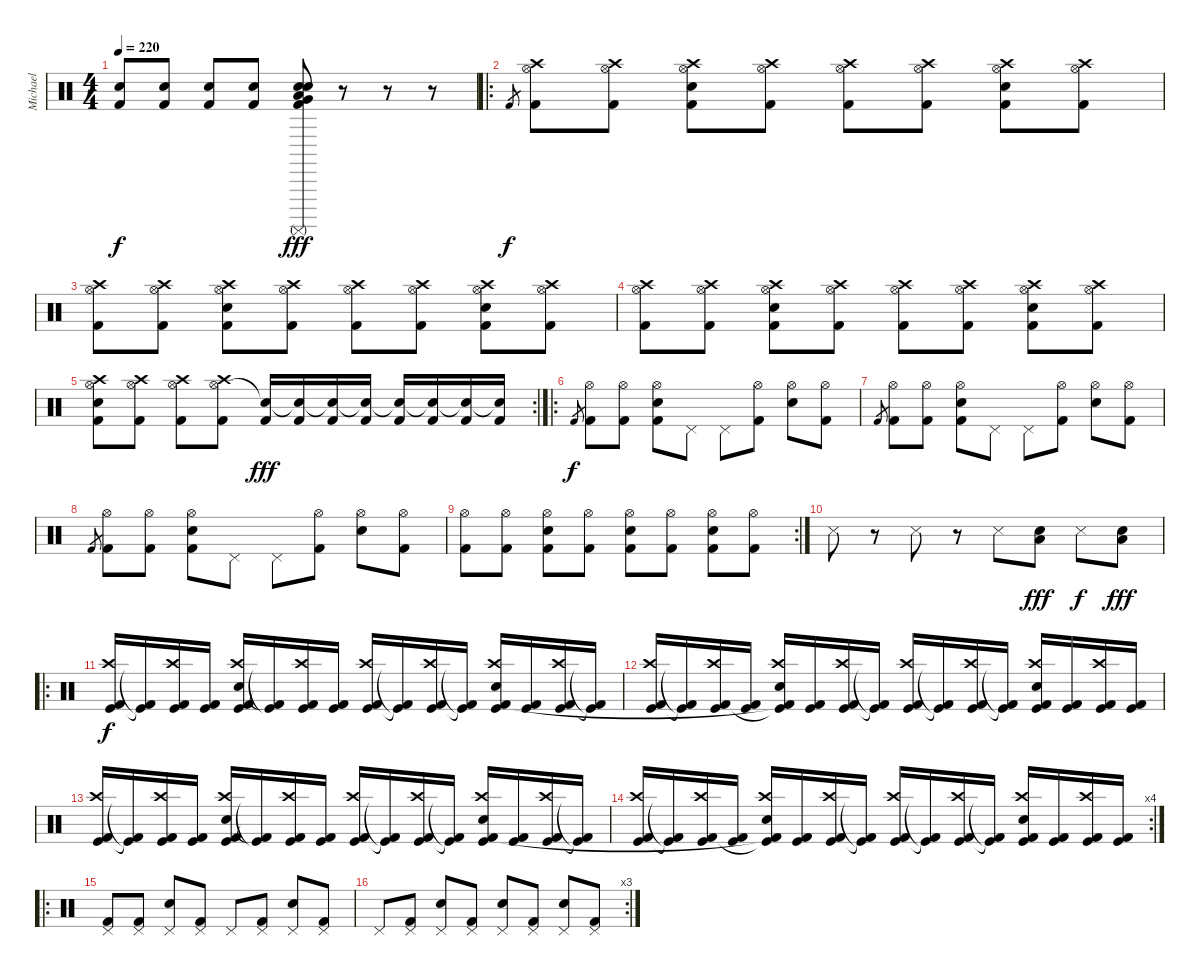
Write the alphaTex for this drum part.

\track ("Michael" "Michael") {instrument percussion}
\staff {score}
\articulation defaults
\ts (4 4)
\tempo 220
\clef neutral
\ks c
("Kick (hit) 2" "Electric Snare (hit)").8{dy f} ("Kick (hit) 2" "Electric Snare (hit)").8 ("Kick (hit) 2" "Electric Snare (hit)").8 ("Kick (hit) 2" "Electric Snare (hit)").8 ("Low Floor Tom (hit)" "Very Low Tom (hit)" "Snare (hit)" "Surdo (mute)" "Kick (hit) 2" "Electric Snare (hit)").8{dy fff} r.8 r.8 r.8 |
\ro "Kick (hit) 2".8{gr dy f}
("Crash high (hit)" "Hi-Hat (open)" "Kick (hit) 2").8 ("Crash high (hit)" "Hi-Hat (open)" "Kick (hit) 2").8 ("Crash high (hit)" "Hi-Hat (open)" "Electric Snare (hit)" "Kick (hit) 2").8 ("Crash high (hit)" "Hi-Hat (open)" "Kick (hit) 2").8 ("Crash high (hit)" "Hi-Hat (open)" "Kick (hit) 2").8 ("Crash high (hit)" "Hi-Hat (open)" "Kick (hit) 2").8 ("Crash high (hit)" "Hi-Hat (open)" "Electric Snare (hit)" "Kick (hit) 2").8 ("Crash high (hit)" "Hi-Hat (open)" "Kick (hit) 2").8 |
("Hi-Hat (open)" "Crash high (hit)" "Kick (hit) 2").8 ("Hi-Hat (open)" "Crash high (hit)" "Kick (hit) 2").8 ("Hi-Hat (open)" "Crash high (hit)" "Electric Snare (hit)" "Kick (hit) 2").8 ("Hi-Hat (open)" "Crash high (hit)" "Kick (hit) 2").8 ("Hi-Hat (open)" "Crash high (hit)" "Kick (hit) 2").8 ("Hi-Hat (open)" "Crash high (hit)" "Kick (hit) 2").8 ("Hi-Hat (open)" "Crash high (hit)" "Electric Snare (hit)" "Kick (hit) 2").8 ("Hi-Hat (open)" "Crash high (hit)" "Kick (hit) 2").8 |
("Hi-Hat (open)" "Crash high (hit)" "Kick (hit) 2").8 ("Hi-Hat (open)" "Crash high (hit)" "Kick (hit) 2").8 ("Hi-Hat (open)" "Crash high (hit)" "Electric Snare (hit)" "Kick (hit) 2").8 ("Hi-Hat (open)" "Crash high (hit)" "Kick (hit) 2").8 ("Hi-Hat (open)" "Crash high (hit)" "Kick (hit) 2").8 ("Hi-Hat (open)" "Crash high (hit)" "Kick (hit) 2").8 ("Hi-Hat (open)" "Crash high (hit)" "Electric Snare (hit)" "Kick (hit) 2").8 ("Hi-Hat (open)" "Crash high (hit)" "Kick (hit) 2").8 |
\rc 2
("Hi-Hat (open)" "Crash high (hit)" "Electric Snare (hit)" "Kick (hit) 2").8 ("Hi-Hat (open)" "Crash high (hit)" "Kick (hit) 2").8 ("Hi-Hat (open)" "Crash high (hit)" "Kick (hit) 2").8 ("Hi-Hat (open)" "Crash high (hit)" "Kick (hit) 2").8 ("Snare (hit)"{t} "Kick (hit) 2").16{dy fff} ("Snare (hit)"{t} "Kick (hit) 2").16 ("Snare (hit)"{t} "Kick (hit) 2").16 ("Snare (hit)"{t} "Kick (hit) 2").16 ("Snare (hit)"{t} "Kick (hit) 2").16 ("Snare (hit)"{t} "Kick (hit) 2").16 ("Snare (hit)"{t} "Kick (hit) 2").16 ("Snare (hit)"{t} "Kick (hit) 2").16 |
\ro "Kick (hit) 2".8{gr dy f}
("Hi-Hat (open)" "Kick (hit) 2").8 ("Hi-Hat (open)" "Kick (hit) 2").8 ("Hi-Hat (open)" "Electric Snare (hit)" "Kick (hit) 2").8 "Pedal Hi-Hat (hit)".8 "Pedal Hi-Hat (hit)".8 ("Hi-Hat (open)" "Kick (hit) 2").8 ("Hi-Hat (open)" "Electric Snare (hit)").8 ("Hi-Hat (open)" "Kick (hit) 2").8 |
"Kick (hit) 2".8{gr} ("Hi-Hat (open)" "Kick (hit) 2").8 ("Hi-Hat (open)" "Kick (hit) 2").8 ("Hi-Hat (open)" "Electric Snare (hit)" "Kick (hit) 2").8 "Pedal Hi-Hat (hit)".8 "Pedal Hi-Hat (hit)".8 ("Hi-Hat (open)" "Kick (hit) 2").8 ("Hi-Hat (open)" "Electric Snare (hit)").8 ("Hi-Hat (open)" "Kick (hit) 2").8 |
"Kick (hit) 2".8{gr} ("Hi-Hat (open)" "Kick (hit) 2").8 ("Hi-Hat (open)" "Kick (hit) 2").8 ("Hi-Hat (open)" "Electric Snare (hit)" "Kick (hit) 2").8 "Pedal Hi-Hat (hit)".8 "Pedal Hi-Hat (hit)".8 ("Hi-Hat (open)" "Kick (hit) 2").8 ("Hi-Hat (open)" "Electric Snare (hit)").8 ("Hi-Hat (open)" "Kick (hit) 2").8 |
\rc 2
("Hi-Hat (open)" "Kick (hit) 2").8 ("Hi-Hat (open)" "Kick (hit) 2").8 ("Hi-Hat (open)" "Electric Snare (hit)" "Kick (hit) 2").8 ("Hi-Hat (open)" "Kick (hit) 2").8 ("Hi-Hat (open)" "Electric Snare (hit)" "Kick (hit) 2").8 ("Hi-Hat (open)" "Kick (hit) 2").8 ("Hi-Hat (open)" "Electric Snare (hit)" "Kick (hit) 2").8 ("Hi-Hat (open)" "Kick (hit) 2").8 |
"Snare (side stick) 3".8 r.8 "Snare (side stick) 3".8 r.8 "Snare (side stick) 3".8 ("Low Floor Tom (hit)" "Electric Snare (hit)").8{dy fff} "Snare (side stick) 3".8{dy f} ("Low Floor Tom (hit)" "Electric Snare (hit)").8{dy fff} |
\ro
("Crash high (hit)" "Kick (hit)" "Kick (hit) 2").16{dy f} ("Kick (hit)"{t} "Kick (hit) 2"{t}).16 ("Crash high (hit)" "Kick (hit)" "Kick (hit) 2").16 ("Kick (hit)" "Kick (hit) 2").16 ("Crash high (hit)" "Electric Snare (hit)" "Kick (hit)" "Kick (hit) 2").16 ("Kick (hit)"{t} "Kick (hit) 2"{t}).16 ("Crash high (hit)" "Kick (hit)" "Kick (hit) 2").16 ("Kick (hit)" "Kick (hit) 2").16 ("Crash high (hit)" "Kick (hit)" "Kick (hit) 2").16 ("Kick (hit)"{t} "Kick (hit) 2"{t}).16 ("Crash high (hit)" "Kick (hit)" "Kick (hit) 2").16 ("Kick (hit)"{t} "Kick (hit) 2"{t}).16 ("Crash high (hit)" "Electric Snare (hit)" "Kick (hit)" "Kick (hit) 2").16 ("Kick (hit)" "Kick (hit) 2").16 ("Crash high (hit)" "Kick (hit)" "Kick (hit) 2").16 ("Kick (hit)"{t} "Kick (hit) 2"{t}).16 |
("Crash high (hit)" "Kick (hit)" "Kick (hit) 2").16 ("Kick (hit)"{t} "Kick (hit) 2"{t}).16 ("Crash high (hit)" "Kick (hit)" "Kick (hit) 2").16 ("Kick (hit)" "Kick (hit) 2").16 ("Crash high (hit)" "Electric Snare (hit)" "Kick (hit)"{t} "Kick (hit) 2"{t}).16 ("Kick (hit)" "Kick (hit) 2").16 ("Crash high (hit)" "Kick (hit)" "Kick (hit) 2").16 ("Kick (hit)"{t} "Kick (hit) 2"{t}).16 ("Crash high (hit)" "Kick (hit)" "Kick (hit) 2").16 ("Kick (hit)"{t} "Kick (hit) 2"{t}).16 ("Crash high (hit)" "Kick (hit)" "Kick (hit) 2").16 ("Kick (hit)"{t} "Kick (hit) 2"{t}).16 ("Crash high (hit)" "Electric Snare (hit)" "Kick (hit)" "Kick (hit) 2").16 ("Kick (hit)" "Kick (hit) 2").16 ("Crash high (hit)" "Kick (hit)" "Kick (hit) 2").16 ("Kick (hit)" "Kick (hit) 2").16 |
("Crash high (hit)" "Kick (hit)" "Kick (hit) 2").16 ("Kick (hit)"{t} "Kick (hit) 2"{t}).16 ("Crash high (hit)" "Kick (hit)" "Kick (hit) 2").16 ("Kick (hit)" "Kick (hit) 2").16 ("Crash high (hit)" "Electric Snare (hit)" "Kick (hit)" "Kick (hit) 2").16 ("Kick (hit)"{t} "Kick (hit) 2"{t}).16 ("Crash high (hit)" "Kick (hit)" "Kick (hit) 2").16 ("Kick (hit)" "Kick (hit) 2").16 ("Crash high (hit)" "Kick (hit)" "Kick (hit) 2").16 ("Kick (hit)"{t} "Kick (hit) 2"{t}).16 ("Crash high (hit)" "Kick (hit)" "Kick (hit) 2").16 ("Kick (hit)"{t} "Kick (hit) 2"{t}).16 ("Crash high (hit)" "Electric Snare (hit)" "Kick (hit)" "Kick (hit) 2").16 ("Kick (hit)" "Kick (hit) 2").16 ("Crash high (hit)" "Kick (hit)" "Kick (hit) 2").16 ("Kick (hit)"{t} "Kick (hit) 2"{t}).16 |
\rc 4
("Crash high (hit)" "Kick (hit)" "Kick (hit) 2").16 ("Kick (hit)"{t} "Kick (hit) 2"{t}).16 ("Crash high (hit)" "Kick (hit)" "Kick (hit) 2").16 ("Kick (hit)" "Kick (hit) 2").16 ("Crash high (hit)" "Electric Snare (hit)" "Kick (hit)"{t} "Kick (hit) 2"{t}).16 ("Kick (hit)" "Kick (hit) 2").16 ("Crash high (hit)" "Kick (hit)" "Kick (hit) 2").16 ("Kick (hit)"{t} "Kick (hit) 2"{t}).16 ("Crash high (hit)" "Kick (hit)" "Kick (hit) 2").16 ("Kick (hit)"{t} "Kick (hit) 2"{t}).16 ("Crash high (hit)" "Kick (hit)" "Kick (hit) 2").16 ("Kick (hit)"{t} "Kick (hit) 2"{t}).16 ("Crash high (hit)" "Electric Snare (hit)" "Kick (hit)" "Kick (hit) 2").16 ("Kick (hit)" "Kick (hit) 2").16 ("Crash high (hit)" "Kick (hit)" "Kick (hit) 2").16 ("Kick (hit)" "Kick (hit) 2").16 |
\ro
("Kick (hit) 2" "Pedal Hi-Hat (hit)").8 ("Kick (hit) 2" "Pedal Hi-Hat (hit)").8 ("Electric Snare (hit)" "Pedal Hi-Hat (hit)").8 ("Kick (hit) 2" "Pedal Hi-Hat (hit)").8 "Pedal Hi-Hat (hit)".8 ("Kick (hit) 2" "Pedal Hi-Hat (hit)").8 ("Electric Snare (hit)" "Pedal Hi-Hat (hit)").8 ("Kick (hit) 2" "Pedal Hi-Hat (hit)").8 |
\rc 3 "Pedal Hi-Hat (hit)".8
("Kick (hit) 2" "Pedal Hi-Hat (hit)").8 ("Electric Snare (hit)" "Pedal Hi-Hat (hit)").8 ("Kick (hit) 2" "Pedal Hi-Hat (hit)").8 ("Electric Snare (hit)" "Pedal Hi-Hat (hit)").8 ("Kick (hit) 2" "Pedal Hi-Hat (hit)").8 ("Electric Snare (hit)" "Pedal Hi-Hat (hit)").8 ("Kick (hit) 2" "Pedal Hi-Hat (hit)").8
